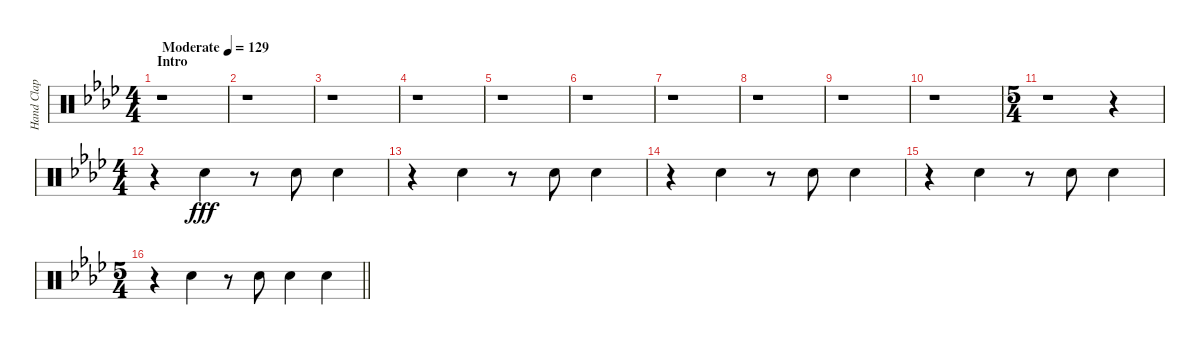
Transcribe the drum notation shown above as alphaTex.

\track ("Hand Clap" "Hand Clap") {instrument percussion}
\staff {score}
\articulation defaults
\ts (4 4)
\section ("" "Intro")
\tempo (129 "Moderate")
\clef neutral
\ks ab
r.1{dy fff} |
r.1 |
r.1 |
r.1 |
r.1 |
r.1 |
r.1 |
r.1 |
r.1 |
r.1 |
\ts (5 4)
r.1 r.4 |
\ts (4 4)
r.4 "Hand Clap (hit)".4 r.8 "Hand Clap (hit)".8 "Hand Clap (hit)".4 |
r.4 "Hand Clap (hit)".4 r.8 "Hand Clap (hit)".8 "Hand Clap (hit)".4 |
r.4 "Hand Clap (hit)".4 r.8 "Hand Clap (hit)".8 "Hand Clap (hit)".4 |
r.4 "Hand Clap (hit)".4 r.8 "Hand Clap (hit)".8 "Hand Clap (hit)".4 |
\ts (5 4)
\barLineRight lightlight
r.4 "Hand Clap (hit)".4 r.8 "Hand Clap (hit)".8 "Hand Clap (hit)".4 "Hand Clap (hit)".4
